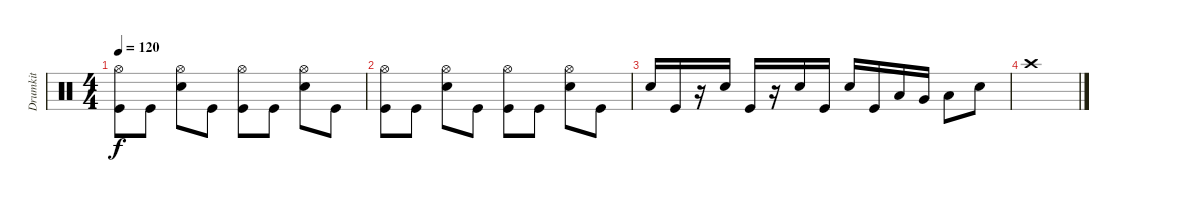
\track ("Drumkit" "Drumkit") {instrument percussion}
\staff {score}
\articulation defaults
\ts (4 4)
\tempo 120
\clef neutral
\ks c
("Kick (hit)" "Hi-Hat (open)").8{dy f} "Kick (hit)".8 ("Snare (hit) 2" "Hi-Hat (open)").8 "Kick (hit)".8 ("Kick (hit)" "Hi-Hat (open)").8 "Kick (hit)".8 ("Snare (hit) 2" "Hi-Hat (open)").8 "Kick (hit)".8 |
("Kick (hit)" "Hi-Hat (open)").8 "Kick (hit)".8 ("Snare (hit) 2" "Hi-Hat (open)").8 "Kick (hit)".8 ("Kick (hit)" "Hi-Hat (open)").8 "Kick (hit)".8 ("Snare (hit) 2" "Hi-Hat (open)").8 "Kick (hit)".8 |
"Snare (hit) 2".16 "Kick (hit)".16 r.16 "Snare (hit) 2".16 "Kick (hit)".16 r.16 "Snare (hit) 2".16 "Kick (hit)".16 "Snare (hit) 2".16 "Kick (hit)".16 "Low Tom (hit)".16 "Very Low Tom (hit)".16 "Low Floor Tom (hit)".8 "Snare (hit) 2".8 |
"Crash high (hit)".1
